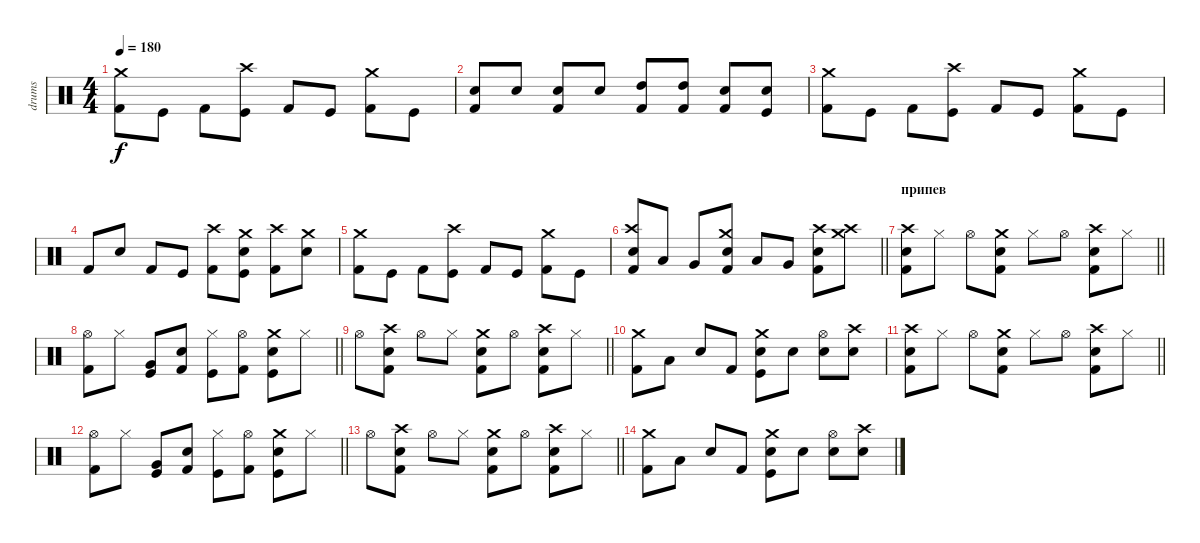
\track ("drums" "drums") {instrument percussion}
\staff {score}
\articulation defaults
\ts (4 4)
\tempo 180
\clef neutral
\ks c
("Kick (hit) 2" "Crash medium (hit)").8{dy f} "Kick (hit)".8 "Kick (hit) 2".8 ("Kick (hit)" "Crash high (hit)").8 "Kick (hit) 2".8 "Kick (hit)".8 ("Kick (hit) 2" "Crash medium (hit)").8 "Kick (hit)".8 |
("Electric Snare (hit)" "Kick (hit) 2").8 "Electric Snare (hit)".8 ("Electric Snare (hit)" "Kick (hit) 2").8 "Electric Snare (hit)".8 ("High Tom (hit)" "Kick (hit) 2").8 ("High Tom (hit)" "Kick (hit) 2").8 ("Electric Snare (hit)" "Kick (hit) 2").8 ("Electric Snare (hit)" "Kick (hit)").8 |
("Kick (hit) 2" "Crash medium (hit)").8 "Kick (hit)".8 "Kick (hit) 2".8 ("Kick (hit)" "Crash high (hit)").8 "Kick (hit) 2".8 "Kick (hit)".8 ("Kick (hit) 2" "Crash medium (hit)").8 "Kick (hit)".8 |
"Kick (hit) 2".8 "Electric Snare (hit)".8 "Kick (hit) 2".8 "Kick (hit)".8 ("Kick (hit) 2" "Crash high (hit)").8 ("Electric Snare (hit)" "Kick (hit)" "Crash medium (hit)").8 ("Kick (hit) 2" "Crash high (hit)").8 ("Electric Snare (hit)" "Crash medium (hit)").8 |
("Kick (hit) 2" "Crash medium (hit)").8 "Kick (hit)".8 "Kick (hit) 2".8 ("Kick (hit)" "Crash high (hit)").8 "Kick (hit) 2".8 "Kick (hit)".8 ("Kick (hit) 2" "Crash medium (hit)").8 "Kick (hit)".8 |
\barLineRight lightlight
("Crash high (hit)" "Electric Snare (hit)" "Kick (hit) 2").8 "Low Tom (hit)".8 "Very Low Tom (hit)".8 ("Crash medium (hit)" "Electric Snare (hit)" "Kick (hit) 2").8 "Low Tom (hit)".8 "Very Low Tom (hit)".8 ("Crash high (hit)" "Electric Snare (hit)" "Kick (hit) 2").8 ("Crash medium (hit)" "Crash high (hit)").8 |
\section ("" "припев")
\barLineRight lightlight
("Crash high (hit)" "Electric Snare (hit)" "Kick (hit) 2").8 "Hi-Hat (closed)".8 "Hi-Hat (open)".8 ("Crash medium (hit)" "Electric Snare (hit)" "Kick (hit) 2").8 "Hi-Hat (closed)".8 "Hi-Hat (open)".8 ("Crash high (hit)" "Electric Snare (hit)" "Kick (hit) 2").8 "Hi-Hat (closed)".8 |
\barLineRight lightlight
("Hi-Hat (open)" "Kick (hit) 2").8 "Hi-Hat (closed)".8 ("Very Low Tom (hit)" "Kick (hit)").8 ("Electric Snare (hit)" "Kick (hit) 2").8 ("Hi-Hat (closed)" "Kick (hit)").8 ("Hi-Hat (open)" "Kick (hit) 2").8 ("Crash medium (hit)" "Electric Snare (hit)" "Kick (hit)").8 "Hi-Hat (closed)".8 |
\barLineRight lightlight "Hi-Hat (open)".8
("Crash high (hit)" "Electric Snare (hit)" "Kick (hit) 2").8 "Hi-Hat (open)".8 "Hi-Hat (closed)".8 ("Crash medium (hit)" "Electric Snare (hit)" "Kick (hit) 2").8 "Hi-Hat (open)".8 ("Crash high (hit)" "Electric Snare (hit)" "Kick (hit) 2").8 "Hi-Hat (closed)".8 |
("Kick (hit) 2" "Crash medium (hit)").8 "Low Floor Tom (hit)".8 "Electric Snare (hit)".8 "Kick (hit) 2".8 ("Electric Snare (hit)" "Kick (hit)" "Crash medium (hit)").8 "Electric Snare (hit)".8 ("Electric Snare (hit)" "Hi-Hat (open)").8 ("Electric Snare (hit)" "Crash high (hit)").8 |
\barLineRight lightlight
("Crash high (hit)" "Electric Snare (hit)" "Kick (hit) 2").8 "Hi-Hat (closed)".8 "Hi-Hat (open)".8 ("Crash medium (hit)" "Electric Snare (hit)" "Kick (hit) 2").8 "Hi-Hat (closed)".8 "Hi-Hat (open)".8 ("Crash high (hit)" "Electric Snare (hit)" "Kick (hit) 2").8 "Hi-Hat (closed)".8 |
\barLineRight lightlight
("Hi-Hat (open)" "Kick (hit) 2").8 "Hi-Hat (closed)".8 ("Very Low Tom (hit)" "Kick (hit)").8 ("Electric Snare (hit)" "Kick (hit) 2").8 ("Hi-Hat (closed)" "Kick (hit)").8 ("Hi-Hat (open)" "Kick (hit) 2").8 ("Crash medium (hit)" "Electric Snare (hit)" "Kick (hit)").8 "Hi-Hat (closed)".8 |
\barLineRight lightlight "Hi-Hat (open)".8
("Crash high (hit)" "Electric Snare (hit)" "Kick (hit) 2").8 "Hi-Hat (open)".8 "Hi-Hat (closed)".8 ("Crash medium (hit)" "Electric Snare (hit)" "Kick (hit) 2").8 "Hi-Hat (open)".8 ("Crash high (hit)" "Electric Snare (hit)" "Kick (hit) 2").8 "Hi-Hat (closed)".8 |
("Kick (hit) 2" "Crash medium (hit)").8 "Low Floor Tom (hit)".8 "Electric Snare (hit)".8 "Kick (hit) 2".8 ("Electric Snare (hit)" "Kick (hit)" "Crash medium (hit)").8 "Electric Snare (hit)".8 ("Electric Snare (hit)" "Hi-Hat (open)").8 ("Electric Snare (hit)" "Crash high (hit)").8
